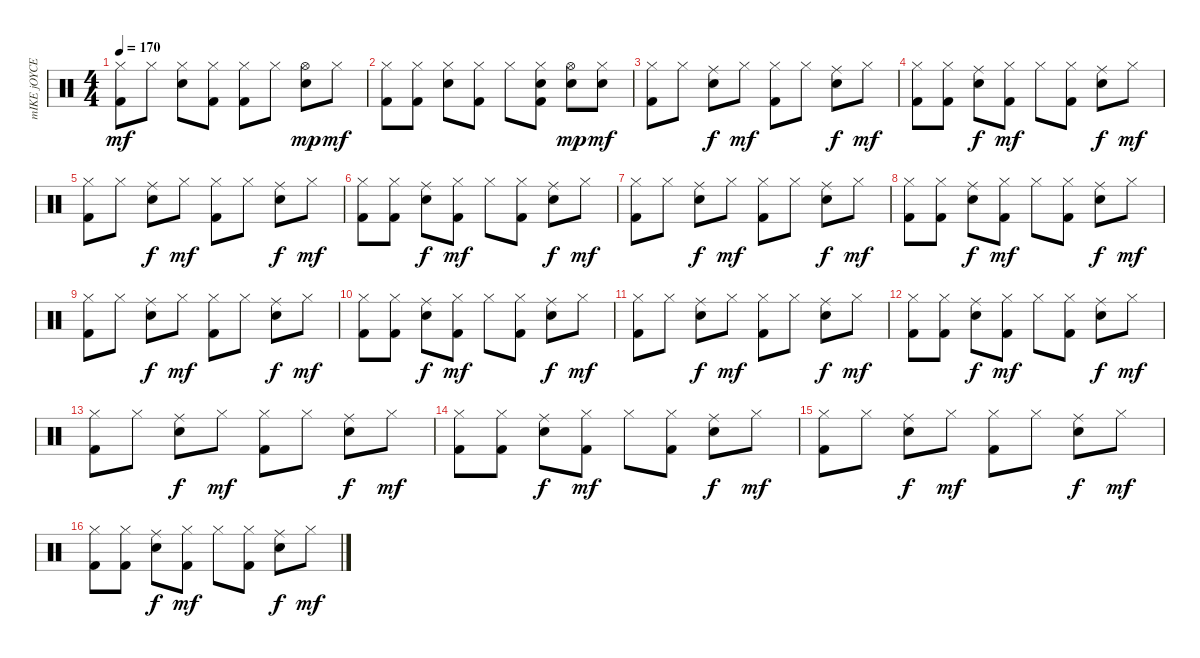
\track ("mIKE jOYCE" "mIKE jOYCE") {instrument percussion}
\staff {score}
\articulation defaults
\ts (4 4)
\tempo 170
\clef neutral
\ks c
("Hi-Hat (closed)" "Kick (hit) 2").8{dy mf} "Hi-Hat (closed)".8 ("Hi-Hat (closed)" "Electric Snare (hit)").8 ("Hi-Hat (closed)" "Kick (hit) 2").8 ("Hi-Hat (closed)" "Kick (hit) 2").8 "Hi-Hat (closed)".8 ("Hi-Hat (open)" "Electric Snare (hit)").8{dy mp} "Hi-Hat (closed)".8{dy mf} |
("Hi-Hat (closed)" "Kick (hit) 2").8 ("Hi-Hat (closed)" "Kick (hit) 2").8 ("Hi-Hat (closed)" "Electric Snare (hit)").8 ("Hi-Hat (closed)" "Kick (hit) 2").8 "Hi-Hat (closed)".8 ("Hi-Hat (closed)" "Electric Snare (hit)" "Kick (hit) 2").8 ("Hi-Hat (open)" "Electric Snare (hit)").8{dy mp} ("Hi-Hat (closed)" "Electric Snare (hit)").8{dy mf} |
("Hi-Hat (closed)" "Kick (hit) 2").8 "Hi-Hat (closed)".8 ("Electric Snare (hit)" "Ride (middle)").8{dy f} "Hi-Hat (closed)".8{dy mf} ("Hi-Hat (closed)" "Kick (hit) 2").8 "Hi-Hat (closed)".8 ("Electric Snare (hit)" "Ride (middle)").8{dy f} "Hi-Hat (closed)".8{dy mf} |
("Hi-Hat (closed)" "Kick (hit) 2").8 ("Hi-Hat (closed)" "Kick (hit) 2").8 ("Electric Snare (hit)" "Ride (middle)").8{dy f} ("Hi-Hat (closed)" "Kick (hit) 2").8{dy mf} "Hi-Hat (closed)".8 ("Hi-Hat (closed)" "Kick (hit) 2").8 ("Electric Snare (hit)" "Ride (middle)").8{dy f} "Hi-Hat (closed)".8{dy mf} |
("Hi-Hat (closed)" "Kick (hit) 2").8 "Hi-Hat (closed)".8 ("Electric Snare (hit)" "Ride (middle)").8{dy f} "Hi-Hat (closed)".8{dy mf} ("Hi-Hat (closed)" "Kick (hit) 2").8 "Hi-Hat (closed)".8 ("Electric Snare (hit)" "Ride (middle)").8{dy f} "Hi-Hat (closed)".8{dy mf} |
("Hi-Hat (closed)" "Kick (hit) 2").8 ("Hi-Hat (closed)" "Kick (hit) 2").8 ("Electric Snare (hit)" "Ride (middle)").8{dy f} ("Hi-Hat (closed)" "Kick (hit) 2").8{dy mf} "Hi-Hat (closed)".8 ("Hi-Hat (closed)" "Kick (hit) 2").8 ("Electric Snare (hit)" "Ride (middle)").8{dy f} "Hi-Hat (closed)".8{dy mf} |
("Hi-Hat (closed)" "Kick (hit) 2").8 "Hi-Hat (closed)".8 ("Electric Snare (hit)" "Ride (middle)").8{dy f} "Hi-Hat (closed)".8{dy mf} ("Hi-Hat (closed)" "Kick (hit) 2").8 "Hi-Hat (closed)".8 ("Electric Snare (hit)" "Ride (middle)").8{dy f} "Hi-Hat (closed)".8{dy mf} |
("Hi-Hat (closed)" "Kick (hit) 2").8 ("Hi-Hat (closed)" "Kick (hit) 2").8 ("Electric Snare (hit)" "Ride (middle)").8{dy f} ("Hi-Hat (closed)" "Kick (hit) 2").8{dy mf} "Hi-Hat (closed)".8 ("Hi-Hat (closed)" "Kick (hit) 2").8 ("Electric Snare (hit)" "Ride (middle)").8{dy f} "Hi-Hat (closed)".8{dy mf} |
("Hi-Hat (closed)" "Kick (hit) 2").8 "Hi-Hat (closed)".8 ("Electric Snare (hit)" "Ride (middle)").8{dy f} "Hi-Hat (closed)".8{dy mf} ("Hi-Hat (closed)" "Kick (hit) 2").8 "Hi-Hat (closed)".8 ("Electric Snare (hit)" "Ride (middle)").8{dy f} "Hi-Hat (closed)".8{dy mf} |
("Hi-Hat (closed)" "Kick (hit) 2").8 ("Hi-Hat (closed)" "Kick (hit) 2").8 ("Electric Snare (hit)" "Ride (middle)").8{dy f} ("Hi-Hat (closed)" "Kick (hit) 2").8{dy mf} "Hi-Hat (closed)".8 ("Hi-Hat (closed)" "Kick (hit) 2").8 ("Electric Snare (hit)" "Ride (middle)").8{dy f} "Hi-Hat (closed)".8{dy mf} |
("Hi-Hat (closed)" "Kick (hit) 2").8 "Hi-Hat (closed)".8 ("Electric Snare (hit)" "Ride (middle)").8{dy f} "Hi-Hat (closed)".8{dy mf} ("Hi-Hat (closed)" "Kick (hit) 2").8 "Hi-Hat (closed)".8 ("Electric Snare (hit)" "Ride (middle)").8{dy f} "Hi-Hat (closed)".8{dy mf} |
("Hi-Hat (closed)" "Kick (hit) 2").8 ("Hi-Hat (closed)" "Kick (hit) 2").8 ("Electric Snare (hit)" "Ride (middle)").8{dy f} ("Hi-Hat (closed)" "Kick (hit) 2").8{dy mf} "Hi-Hat (closed)".8 ("Hi-Hat (closed)" "Kick (hit) 2").8 ("Electric Snare (hit)" "Ride (middle)").8{dy f} "Hi-Hat (closed)".8{dy mf} |
("Hi-Hat (closed)" "Kick (hit) 2").8 "Hi-Hat (closed)".8 ("Electric Snare (hit)" "Ride (middle)").8{dy f} "Hi-Hat (closed)".8{dy mf} ("Hi-Hat (closed)" "Kick (hit) 2").8 "Hi-Hat (closed)".8 ("Electric Snare (hit)" "Ride (middle)").8{dy f} "Hi-Hat (closed)".8{dy mf} |
("Hi-Hat (closed)" "Kick (hit) 2").8 ("Hi-Hat (closed)" "Kick (hit) 2").8 ("Electric Snare (hit)" "Ride (middle)").8{dy f} ("Hi-Hat (closed)" "Kick (hit) 2").8{dy mf} "Hi-Hat (closed)".8 ("Hi-Hat (closed)" "Kick (hit) 2").8 ("Electric Snare (hit)" "Ride (middle)").8{dy f} "Hi-Hat (closed)".8{dy mf} |
("Hi-Hat (closed)" "Kick (hit) 2").8 "Hi-Hat (closed)".8 ("Electric Snare (hit)" "Ride (middle)").8{dy f} "Hi-Hat (closed)".8{dy mf} ("Hi-Hat (closed)" "Kick (hit) 2").8 "Hi-Hat (closed)".8 ("Electric Snare (hit)" "Ride (middle)").8{dy f} "Hi-Hat (closed)".8{dy mf} |
("Hi-Hat (closed)" "Kick (hit) 2").8 ("Hi-Hat (closed)" "Kick (hit) 2").8 ("Electric Snare (hit)" "Ride (middle)").8{dy f} ("Hi-Hat (closed)" "Kick (hit) 2").8{dy mf} "Hi-Hat (closed)".8 ("Hi-Hat (closed)" "Kick (hit) 2").8 ("Electric Snare (hit)" "Ride (middle)").8{dy f} "Hi-Hat (closed)".8{dy mf}
